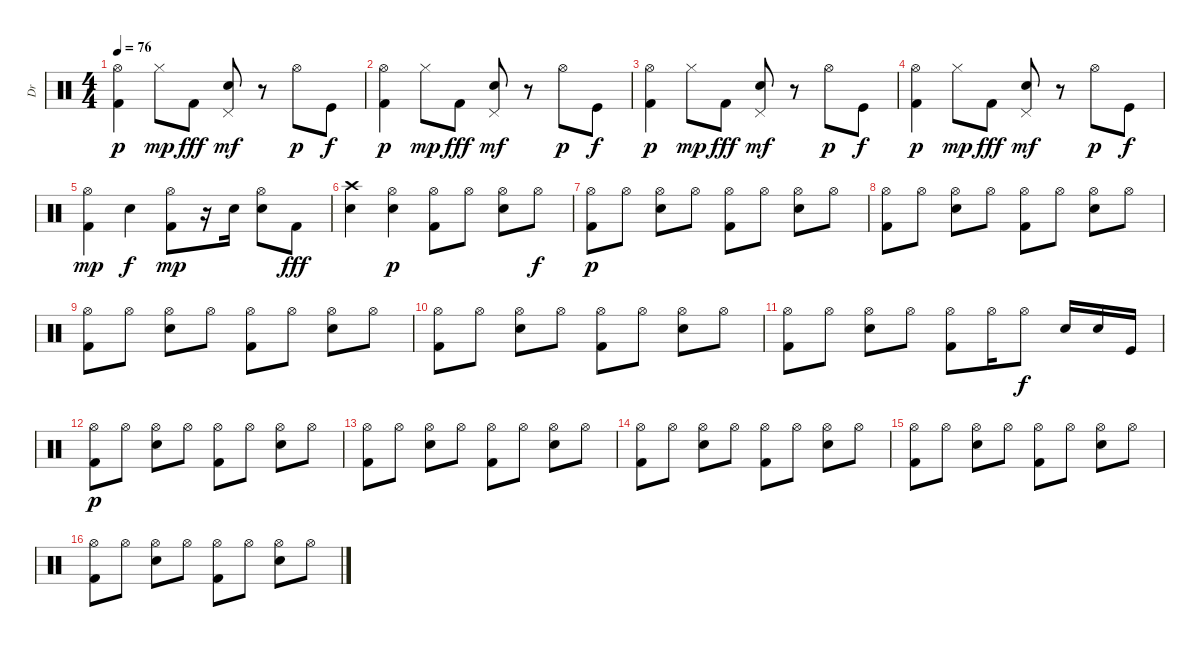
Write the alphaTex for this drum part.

\track ("Dr" "Dr") {instrument percussion}
\staff {score}
\articulation defaults
\ts (4 4)
\tempo 76
\clef neutral
\ks c
("Kick (hit) 2" "Hi-Hat (open)").4{dy p} "Hi-Hat (closed)".8{dy mp} "Kick (hit) 2".8{dy fff} ("Snare (hit) 2" "Pedal Hi-Hat (hit)").8{dy mf} r.8 "Hi-Hat (open)".8{dy p} "Kick (hit)".8{dy f} |
("Kick (hit) 2" "Hi-Hat (open)").4{dy p} "Hi-Hat (closed)".8{dy mp} "Kick (hit) 2".8{dy fff} ("Snare (hit) 2" "Pedal Hi-Hat (hit)").8{dy mf} r.8 "Hi-Hat (open)".8{dy p} "Kick (hit)".8{dy f} |
("Kick (hit) 2" "Hi-Hat (open)").4{dy p} "Hi-Hat (closed)".8{dy mp} "Kick (hit) 2".8{dy fff} ("Snare (hit) 2" "Pedal Hi-Hat (hit)").8{dy mf} r.8 "Hi-Hat (open)".8{dy p} "Kick (hit)".8{dy f} |
("Kick (hit) 2" "Hi-Hat (open)").4{dy p} "Hi-Hat (closed)".8{dy mp} "Kick (hit) 2".8{dy fff} ("Snare (hit) 2" "Pedal Hi-Hat (hit)").8{dy mf} r.8 "Hi-Hat (open)".8{dy p} "Kick (hit)".8{dy f} |
("Hi-Hat (open)" "Kick (hit) 2").4{dy mp} "Snare (hit) 2".4{dy f} ("Hi-Hat (open)" "Kick (hit) 2").8{dy mp} r.16 "Snare (hit) 2".16 ("Hi-Hat (open)" "Snare (hit) 2").8 "Kick (hit) 2".8{dy fff} |
("Crash high (hit)" "Snare (hit) 2").4 ("Snare (hit) 2" "Hi-Hat (open)").4{dy p} ("Kick (hit) 2" "Hi-Hat (open)").8 "Hi-Hat (open)".8 ("Snare (hit) 2" "Hi-Hat (open)").8 "Hi-Hat (open)".8{dy f} |
("Kick (hit) 2" "Hi-Hat (open)").8{dy p} "Hi-Hat (open)".8 ("Hi-Hat (open)" "Snare (hit) 2").8 "Hi-Hat (open)".8 ("Kick (hit) 2" "Hi-Hat (open)").8 "Hi-Hat (open)".8 ("Snare (hit) 2" "Hi-Hat (open)").8 "Hi-Hat (open)".8 |
("Kick (hit) 2" "Hi-Hat (open)").8 "Hi-Hat (open)".8 ("Hi-Hat (open)" "Snare (hit) 2").8 "Hi-Hat (open)".8 ("Kick (hit) 2" "Hi-Hat (open)").8 "Hi-Hat (open)".8 ("Snare (hit) 2" "Hi-Hat (open)").8 "Hi-Hat (open)".8 |
("Kick (hit) 2" "Hi-Hat (open)").8 "Hi-Hat (open)".8 ("Hi-Hat (open)" "Snare (hit) 2").8 "Hi-Hat (open)".8 ("Kick (hit) 2" "Hi-Hat (open)").8 "Hi-Hat (open)".8 ("Snare (hit) 2" "Hi-Hat (open)").8 "Hi-Hat (open)".8 |
("Kick (hit) 2" "Hi-Hat (open)").8 "Hi-Hat (open)".8 ("Hi-Hat (open)" "Snare (hit) 2").8 "Hi-Hat (open)".8 ("Kick (hit) 2" "Hi-Hat (open)").8 "Hi-Hat (open)".8 ("Snare (hit) 2" "Hi-Hat (open)").8 "Hi-Hat (open)".8 |
("Kick (hit) 2" "Hi-Hat (open)").8 "Hi-Hat (open)".8 ("Hi-Hat (open)" "Snare (hit) 2").8 "Hi-Hat (open)".8 ("Kick (hit) 2" "Hi-Hat (open)").8 "Hi-Hat (open)".16 "Hi-Hat (open)".8{dy f} "Snare (hit) 2".16 "Snare (hit) 2".16 "Kick (hit)".16 |
("Kick (hit) 2" "Hi-Hat (open)").8{dy p} "Hi-Hat (open)".8 ("Hi-Hat (open)" "Snare (hit) 2").8 "Hi-Hat (open)".8 ("Kick (hit) 2" "Hi-Hat (open)").8 "Hi-Hat (open)".8 ("Snare (hit) 2" "Hi-Hat (open)").8 "Hi-Hat (open)".8 |
("Kick (hit) 2" "Hi-Hat (open)").8 "Hi-Hat (open)".8 ("Hi-Hat (open)" "Snare (hit) 2").8 "Hi-Hat (open)".8 ("Kick (hit) 2" "Hi-Hat (open)").8 "Hi-Hat (open)".8 ("Snare (hit) 2" "Hi-Hat (open)").8 "Hi-Hat (open)".8 |
("Kick (hit) 2" "Hi-Hat (open)").8 "Hi-Hat (open)".8 ("Hi-Hat (open)" "Snare (hit) 2").8 "Hi-Hat (open)".8 ("Kick (hit) 2" "Hi-Hat (open)").8 "Hi-Hat (open)".8 ("Snare (hit) 2" "Hi-Hat (open)").8 "Hi-Hat (open)".8 |
("Kick (hit) 2" "Hi-Hat (open)").8 "Hi-Hat (open)".8 ("Hi-Hat (open)" "Snare (hit) 2").8 "Hi-Hat (open)".8 ("Kick (hit) 2" "Hi-Hat (open)").8 "Hi-Hat (open)".8 ("Snare (hit) 2" "Hi-Hat (open)").8 "Hi-Hat (open)".8 |
("Kick (hit) 2" "Hi-Hat (open)").8 "Hi-Hat (open)".8 ("Hi-Hat (open)" "Snare (hit) 2").8 "Hi-Hat (open)".8 ("Kick (hit) 2" "Hi-Hat (open)").8 "Hi-Hat (open)".8 ("Snare (hit) 2" "Hi-Hat (open)").8 "Hi-Hat (open)".8
